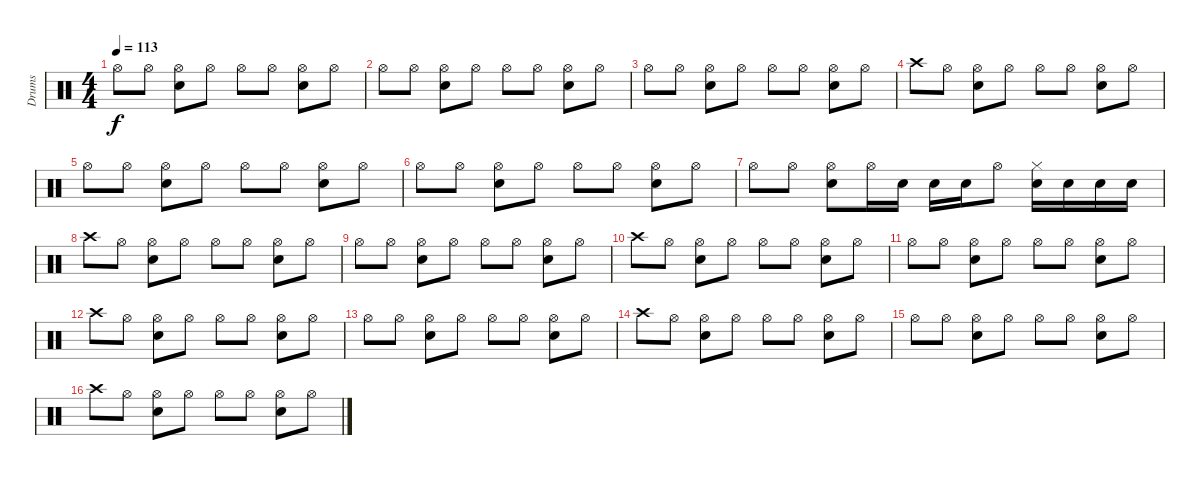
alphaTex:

\track ("Drums" "Drums") {instrument percussion}
\staff {score}
\articulation defaults
\ts (4 4)
\tempo 113
\clef neutral
\ks c "Hi-Hat (open)".8{dy f} "Hi-Hat (open)".8
("Hi-Hat (open)" "Snare (hit) 2").8 "Hi-Hat (open)".8 "Hi-Hat (open)".8 "Hi-Hat (open)".8 ("Hi-Hat (open)" "Snare (hit) 2").8 "Hi-Hat (open)".8 |
"Hi-Hat (open)".8 "Hi-Hat (open)".8 ("Hi-Hat (open)" "Snare (hit) 2").8 "Hi-Hat (open)".8 "Hi-Hat (open)".8 "Hi-Hat (open)".8 ("Hi-Hat (open)" "Snare (hit) 2").8 "Hi-Hat (open)".8 |
"Hi-Hat (open)".8 "Hi-Hat (open)".8 ("Hi-Hat (open)" "Snare (hit) 2").8 "Hi-Hat (open)".8 "Hi-Hat (open)".8 "Hi-Hat (open)".8 ("Hi-Hat (open)" "Snare (hit) 2").8 "Hi-Hat (open)".8 |
"Crash high (hit)".8 "Hi-Hat (open)".8 ("Hi-Hat (open)" "Snare (hit) 2").8 "Hi-Hat (open)".8 "Hi-Hat (open)".8 "Hi-Hat (open)".8 ("Hi-Hat (open)" "Snare (hit) 2").8 "Hi-Hat (open)".8 |
"Hi-Hat (open)".8 "Hi-Hat (open)".8 ("Hi-Hat (open)" "Snare (hit) 2").8 "Hi-Hat (open)".8 "Hi-Hat (open)".8 "Hi-Hat (open)".8 ("Hi-Hat (open)" "Snare (hit) 2").8 "Hi-Hat (open)".8 |
"Hi-Hat (open)".8 "Hi-Hat (open)".8 ("Hi-Hat (open)" "Snare (hit) 2").8 "Hi-Hat (open)".8 "Hi-Hat (open)".8 "Hi-Hat (open)".8 ("Hi-Hat (open)" "Snare (hit) 2").8 "Hi-Hat (open)".8 |
"Hi-Hat (open)".8 "Hi-Hat (open)".8 ("Hi-Hat (open)" "Snare (hit) 2").8 "Hi-Hat (open)".16 "Snare (hit) 2".16 "Snare (hit) 2".16 "Snare (hit) 2".16 "Hi-Hat (open)".8 ("Hi-Hat (closed)" "Snare (hit) 2").16 "Snare (hit) 2".16 "Snare (hit) 2".16 "Snare (hit) 2".16 |
"Crash high (hit)".8 "Hi-Hat (open)".8 ("Hi-Hat (open)" "Snare (hit) 2").8 "Hi-Hat (open)".8 "Hi-Hat (open)".8 "Hi-Hat (open)".8 ("Hi-Hat (open)" "Snare (hit) 2").8 "Hi-Hat (open)".8 |
"Hi-Hat (open)".8 "Hi-Hat (open)".8 ("Hi-Hat (open)" "Snare (hit) 2").8 "Hi-Hat (open)".8 "Hi-Hat (open)".8 "Hi-Hat (open)".8 ("Hi-Hat (open)" "Snare (hit) 2").8 "Hi-Hat (open)".8 |
"Crash high (hit)".8 "Hi-Hat (open)".8 ("Hi-Hat (open)" "Snare (hit) 2").8 "Hi-Hat (open)".8 "Hi-Hat (open)".8 "Hi-Hat (open)".8 ("Hi-Hat (open)" "Snare (hit) 2").8 "Hi-Hat (open)".8 |
"Hi-Hat (open)".8 "Hi-Hat (open)".8 ("Hi-Hat (open)" "Snare (hit) 2").8 "Hi-Hat (open)".8 "Hi-Hat (open)".8 "Hi-Hat (open)".8 ("Hi-Hat (open)" "Snare (hit) 2").8 "Hi-Hat (open)".8 |
"Crash high (hit)".8 "Hi-Hat (open)".8 ("Hi-Hat (open)" "Snare (hit) 2").8 "Hi-Hat (open)".8 "Hi-Hat (open)".8 "Hi-Hat (open)".8 ("Hi-Hat (open)" "Snare (hit) 2").8 "Hi-Hat (open)".8 |
"Hi-Hat (open)".8 "Hi-Hat (open)".8 ("Hi-Hat (open)" "Snare (hit) 2").8 "Hi-Hat (open)".8 "Hi-Hat (open)".8 "Hi-Hat (open)".8 ("Hi-Hat (open)" "Snare (hit) 2").8 "Hi-Hat (open)".8 |
"Crash high (hit)".8 "Hi-Hat (open)".8 ("Hi-Hat (open)" "Snare (hit) 2").8 "Hi-Hat (open)".8 "Hi-Hat (open)".8 "Hi-Hat (open)".8 ("Hi-Hat (open)" "Snare (hit) 2").8 "Hi-Hat (open)".8 |
"Hi-Hat (open)".8 "Hi-Hat (open)".8 ("Hi-Hat (open)" "Snare (hit) 2").8 "Hi-Hat (open)".8 "Hi-Hat (open)".8 "Hi-Hat (open)".8 ("Hi-Hat (open)" "Snare (hit) 2").8 "Hi-Hat (open)".8 |
"Crash high (hit)".8 "Hi-Hat (open)".8 ("Hi-Hat (open)" "Snare (hit) 2").8 "Hi-Hat (open)".8 "Hi-Hat (open)".8 "Hi-Hat (open)".8 ("Hi-Hat (open)" "Snare (hit) 2").8 "Hi-Hat (open)".8
